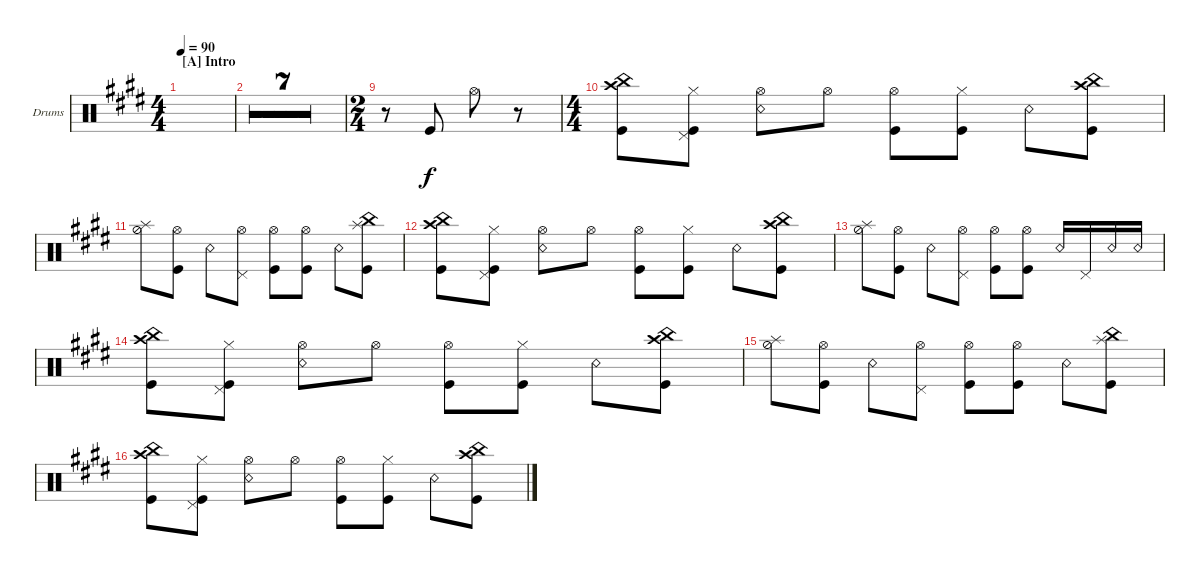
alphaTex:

\defaultSystemsLayout 4
\bracketExtendMode groupsimilarinstruments
\firstSystemTrackNameOrientation horizontal
\otherSystemsTrackNameOrientation horizontal
\track ("Drum" "Drums") {multiBarRest instrument percussion}
\staff {score}
\articulation defaults
\ts (4 4)
\section ("A" "Intro")
\tempo 90
\clef neutral
\ks e
|
|
|
|
|
|
|
|
\ts (2 4)
r.8 "Kick (hit)".8 "Hi-Hat (open)".8 r.8 |
\ts (4 4)
("Kick (hit)" "China (hit)" "Crash high (hit)").8 ("Kick (hit)" "Pedal Hi-Hat (hit)" "Hi-Hat (closed)").8 ("Snare (rim shot)" "Hi-Hat (open)").8 "Hi-Hat (open)".8 ("Kick (hit)" "Hi-Hat (open)").8 ("Kick (hit)" "Hi-Hat (closed)").8 "Snare (rim shot)".8 ("Crash high (hit)" "Kick (hit)" "China (hit)").8 |
("Hi-Hat (half)" "Splash (hit)").8 ("Kick (hit)" "Hi-Hat (open)").8 "Snare (rim shot)".8 ("Pedal Hi-Hat (hit)" "Hi-Hat (open)").8 ("Kick (hit)" "Hi-Hat (open)").8 ("Kick (hit)" "Hi-Hat (open)").8 "Snare (rim shot)".8 ("China (hit)" "Kick (hit)" "Splash (hit)").8 |
("Kick (hit)" "China (hit)" "Crash high (hit)").8 ("Kick (hit)" "Pedal Hi-Hat (hit)" "Hi-Hat (closed)").8 ("Snare (rim shot)" "Hi-Hat (open)").8 "Hi-Hat (open)".8 ("Kick (hit)" "Hi-Hat (open)").8 ("Kick (hit)" "Hi-Hat (closed)").8 "Snare (rim shot)".8 ("Crash high (hit)" "Kick (hit)" "China (hit)").8 |
("Hi-Hat (half)" "Splash (hit)").8 ("Kick (hit)" "Hi-Hat (open)").8 "Snare (rim shot)".8 ("Pedal Hi-Hat (hit)" "Hi-Hat (open)").8 ("Kick (hit)" "Hi-Hat (open)").8 ("Kick (hit)" "Hi-Hat (open)").8 "Snare (rim shot)".16 "Pedal Hi-Hat (hit)".16 "Snare (rim shot)".16 "Snare (rim shot)".16 |
("Kick (hit)" "China (hit)" "Crash high (hit)").8 ("Kick (hit)" "Pedal Hi-Hat (hit)" "Hi-Hat (closed)").8 ("Snare (rim shot)" "Hi-Hat (open)").8 "Hi-Hat (open)".8 ("Kick (hit)" "Hi-Hat (open)").8 ("Kick (hit)" "Hi-Hat (closed)").8 "Snare (rim shot)".8 ("Crash high (hit)" "Kick (hit)" "China (hit)").8 |
("Hi-Hat (half)" "Splash (hit)").8 ("Kick (hit)" "Hi-Hat (open)").8 "Snare (rim shot)".8 ("Pedal Hi-Hat (hit)" "Hi-Hat (open)").8 ("Kick (hit)" "Hi-Hat (open)").8 ("Kick (hit)" "Hi-Hat (open)").8 "Snare (rim shot)".8 ("China (hit)" "Kick (hit)" "Splash (hit)").8 |
("Kick (hit)" "China (hit)" "Crash high (hit)").8 ("Kick (hit)" "Pedal Hi-Hat (hit)" "Hi-Hat (closed)").8 ("Snare (rim shot)" "Hi-Hat (open)").8 "Hi-Hat (open)".8 ("Kick (hit)" "Hi-Hat (open)").8 ("Kick (hit)" "Hi-Hat (closed)").8 "Snare (rim shot)".8 ("Crash high (hit)" "Kick (hit)" "China (hit)").8
